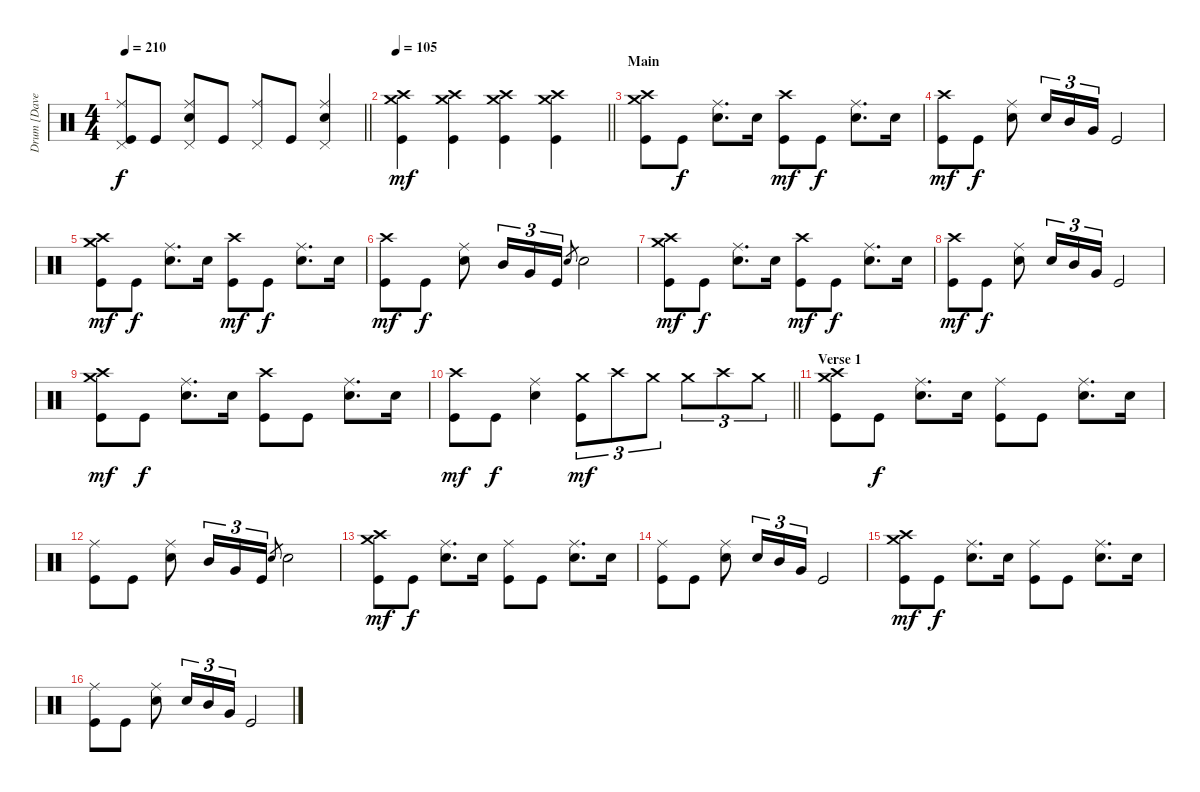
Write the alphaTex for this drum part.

\track ("Drum [Dave Grohl]" "Drum [Dave") {instrument percussion bank 84}
\staff {score}
\articulation defaults
\ts (4 4)
\tempo 210
\clef neutral
\barLineRight lightlight
\ks c
("Pedal Hi-Hat (hit)" "Ride (middle)" "Kick (hit)").8{dy f} "Kick (hit)".8 ("Pedal Hi-Hat (hit)" "Ride (middle)" "Electric Snare (hit)").8 "Kick (hit)".8 ("Pedal Hi-Hat (hit)" "Ride (middle)").8 "Kick (hit)".8 ("Pedal Hi-Hat (hit)" "Ride (middle)" "Electric Snare (hit)").4 |
\section ("" "")
\tempo 105
\barLineRight lightlight
("Crash high (hit)" "Crash medium (hit)" "Kick (hit)").4{dy mf balance 1} ("Crash high (hit)" "Crash medium (hit)" "Kick (hit)").4 ("Crash high (hit)" "Crash medium (hit)" "Kick (hit)").4 ("Crash high (hit)" "Crash medium (hit)" "Kick (hit)").4 |
\section ("" "Main")
("Crash high (hit)" "Crash medium (hit)" "Kick (hit)").8 "Kick (hit)".8{dy f} ("Ride (middle)" "Electric Snare (hit)").8{d} "Electric Snare (hit)".16 ("Crash high (hit)" "Kick (hit)").8{dy mf} "Kick (hit)".8{dy f} ("Ride (middle)" "Electric Snare (hit)").8{d} "Electric Snare (hit)".16 |
("Crash high (hit)" "Kick (hit)").8{dy mf} "Kick (hit)".8{dy f} ("Ride (middle)" "Electric Snare (hit)").8 "Electric Snare (hit)".16{tu (3 2)} "Mid Tom (hit)".16{tu (3 2)} "Very Low Tom (hit)".16{tu (3 2)} "Kick (hit)".2 |
("Crash high (hit)" "Crash medium (hit)" "Kick (hit)").8{dy mf} "Kick (hit)".8{dy f} ("Ride (middle)" "Electric Snare (hit)").8{d} "Electric Snare (hit)".16 ("Crash high (hit)" "Kick (hit)").8{dy mf} "Kick (hit)".8{dy f} ("Ride (middle)" "Electric Snare (hit)").8{d} "Electric Snare (hit)".16 |
("Crash high (hit)" "Kick (hit)").8{dy mf} "Kick (hit)".8{dy f} ("Ride (middle)" "Electric Snare (hit)").8 "Mid Tom (hit)".16{tu (3 2)} "Very Low Tom (hit)".16{tu (3 2)} "Kick (hit)".16{tu (3 2)} "Electric Snare (hit)".8{gr} "Electric Snare (hit)".2 |
("Crash high (hit)" "Crash medium (hit)" "Kick (hit)").8{dy mf} "Kick (hit)".8{dy f} ("Ride (middle)" "Electric Snare (hit)").8{d} "Electric Snare (hit)".16 ("Crash high (hit)" "Kick (hit)").8{dy mf} "Kick (hit)".8{dy f} ("Ride (middle)" "Electric Snare (hit)").8{d} "Electric Snare (hit)".16 |
("Crash high (hit)" "Kick (hit)").8{dy mf} "Kick (hit)".8{dy f} ("Ride (middle)" "Electric Snare (hit)").8 "Electric Snare (hit)".16{tu (3 2)} "Mid Tom (hit)".16{tu (3 2)} "Very Low Tom (hit)".16{tu (3 2)} "Kick (hit)".2 |
("Crash high (hit)" "Crash medium (hit)" "Kick (hit)").8{dy mf} "Kick (hit)".8{dy f} ("Ride (middle)" "Electric Snare (hit)").8{d} "Electric Snare (hit)".16 ("Crash high (hit)" "Kick (hit)").8 "Kick (hit)".8 ("Ride (middle)" "Electric Snare (hit)").8{d} "Electric Snare (hit)".16 |
\barLineRight lightlight
("Crash high (hit)" "Kick (hit)").8{dy mf} "Kick (hit)".8{dy f} ("Ride (middle)" "Electric Snare (hit)").4 ("Crash medium (hit)" "Kick (hit)").8{tu (3 2) dy mf} "Crash high (hit)".8{tu (3 2)} "Crash medium (hit)".8{tu (3 2)} "Crash medium (hit)".8{tu (3 2)} "Crash high (hit)".8{tu (3 2)} "Crash medium (hit)".8{tu (3 2)} |
\section ("" "Verse 1")
("Crash high (hit)" "Crash medium (hit)" "Kick (hit)").8 "Kick (hit)".8{dy f} ("Ride (middle)" "Electric Snare (hit)").8{d} "Electric Snare (hit)".16 ("Ride (middle)" "Kick (hit)").8 "Kick (hit)".8 ("Ride (middle)" "Electric Snare (hit)").8{d} "Electric Snare (hit)".16 |
("Ride (middle)" "Kick (hit)").8 "Kick (hit)".8 ("Ride (middle)" "Electric Snare (hit)").8 "Mid Tom (hit)".16{tu (3 2)} "Very Low Tom (hit)".16{tu (3 2)} "Kick (hit)".16{tu (3 2)} "Electric Snare (hit)".8{gr} "Electric Snare (hit)".2 |
("Crash high (hit)" "Crash medium (hit)" "Kick (hit)").8{dy mf} "Kick (hit)".8{dy f} ("Ride (middle)" "Electric Snare (hit)").8{d} "Electric Snare (hit)".16 ("Ride (middle)" "Kick (hit)").8 "Kick (hit)".8 ("Ride (middle)" "Electric Snare (hit)").8{d} "Electric Snare (hit)".16 |
("Ride (middle)" "Kick (hit)").8 "Kick (hit)".8 ("Ride (middle)" "Electric Snare (hit)").8 "Electric Snare (hit)".16{tu (3 2)} "Mid Tom (hit)".16{tu (3 2)} "Very Low Tom (hit)".16{tu (3 2)} "Kick (hit)".2 |
("Crash high (hit)" "Crash medium (hit)" "Kick (hit)").8{dy mf} "Kick (hit)".8{dy f} ("Ride (middle)" "Electric Snare (hit)").8{d} "Electric Snare (hit)".16 ("Ride (middle)" "Kick (hit)").8 "Kick (hit)".8 ("Ride (middle)" "Electric Snare (hit)").8{d} "Electric Snare (hit)".16 |
("Ride (middle)" "Kick (hit)").8 "Kick (hit)".8 ("Ride (middle)" "Electric Snare (hit)").8 "Electric Snare (hit)".16{tu (3 2)} "Mid Tom (hit)".16{tu (3 2)} "Very Low Tom (hit)".16{tu (3 2)} "Kick (hit)".2
